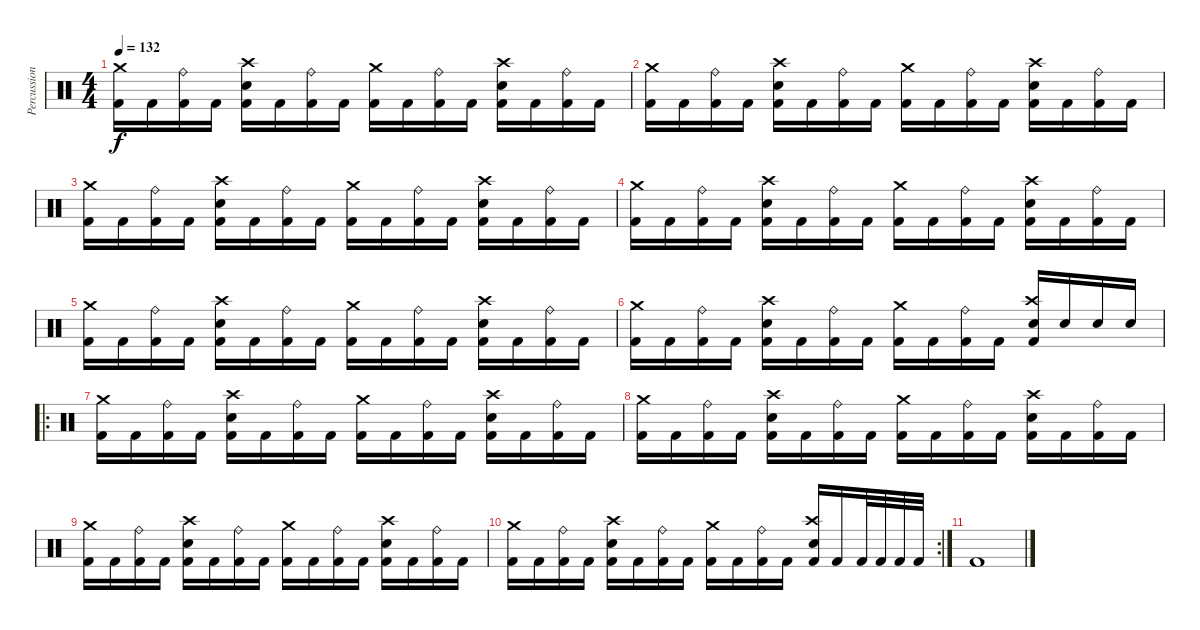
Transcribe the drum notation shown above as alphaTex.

\track ("Percussion" "Percussion") {instrument percussion}
\staff {score}
\articulation defaults
\ts (4 4)
\tempo 132
\clef neutral
\ks c
("Crash medium (hit)" "Kick (hit) 2").16{dy f} "Kick (hit) 2".16 ("Ride (bell)" "Kick (hit) 2").16 "Kick (hit) 2".16 ("Crash high (hit)" "Snare (hit) 2" "Kick (hit) 2").16 "Kick (hit) 2".16 ("Ride (bell)" "Kick (hit) 2").16 "Kick (hit) 2".16 ("Crash medium (hit)" "Kick (hit) 2").16 "Kick (hit) 2".16 ("Ride (bell)" "Kick (hit) 2").16 "Kick (hit) 2".16 ("Crash high (hit)" "Snare (hit) 2" "Kick (hit) 2").16 "Kick (hit) 2".16 ("Ride (bell)" "Kick (hit) 2").16 "Kick (hit) 2".16 |
("Crash medium (hit)" "Kick (hit) 2").16 "Kick (hit) 2".16 ("Ride (bell)" "Kick (hit) 2").16 "Kick (hit) 2".16 ("Crash high (hit)" "Snare (hit) 2" "Kick (hit) 2").16 "Kick (hit) 2".16 ("Ride (bell)" "Kick (hit) 2").16 "Kick (hit) 2".16 ("Crash medium (hit)" "Kick (hit) 2").16 "Kick (hit) 2".16 ("Ride (bell)" "Kick (hit) 2").16 "Kick (hit) 2".16 ("Crash high (hit)" "Snare (hit) 2" "Kick (hit) 2").16 "Kick (hit) 2".16 ("Ride (bell)" "Kick (hit) 2").16 "Kick (hit) 2".16 |
("Crash medium (hit)" "Kick (hit) 2").16 "Kick (hit) 2".16 ("Ride (bell)" "Kick (hit) 2").16 "Kick (hit) 2".16 ("Crash high (hit)" "Snare (hit) 2" "Kick (hit) 2").16 "Kick (hit) 2".16 ("Ride (bell)" "Kick (hit) 2").16 "Kick (hit) 2".16 ("Crash medium (hit)" "Kick (hit) 2").16 "Kick (hit) 2".16 ("Ride (bell)" "Kick (hit) 2").16 "Kick (hit) 2".16 ("Crash high (hit)" "Snare (hit) 2" "Kick (hit) 2").16 "Kick (hit) 2".16 ("Ride (bell)" "Kick (hit) 2").16 "Kick (hit) 2".16 |
("Crash medium (hit)" "Kick (hit) 2").16 "Kick (hit) 2".16 ("Ride (bell)" "Kick (hit) 2").16 "Kick (hit) 2".16 ("Crash high (hit)" "Snare (hit) 2" "Kick (hit) 2").16 "Kick (hit) 2".16 ("Ride (bell)" "Kick (hit) 2").16 "Kick (hit) 2".16 ("Crash medium (hit)" "Kick (hit) 2").16 "Kick (hit) 2".16 ("Ride (bell)" "Kick (hit) 2").16 "Kick (hit) 2".16 ("Crash high (hit)" "Snare (hit) 2" "Kick (hit) 2").16 "Kick (hit) 2".16 ("Ride (bell)" "Kick (hit) 2").16 "Kick (hit) 2".16 |
("Crash medium (hit)" "Kick (hit) 2").16 "Kick (hit) 2".16 ("Ride (bell)" "Kick (hit) 2").16 "Kick (hit) 2".16 ("Crash high (hit)" "Snare (hit) 2" "Kick (hit) 2").16 "Kick (hit) 2".16 ("Ride (bell)" "Kick (hit) 2").16 "Kick (hit) 2".16 ("Crash medium (hit)" "Kick (hit) 2").16 "Kick (hit) 2".16 ("Ride (bell)" "Kick (hit) 2").16 "Kick (hit) 2".16 ("Crash high (hit)" "Snare (hit) 2" "Kick (hit) 2").16 "Kick (hit) 2".16 ("Ride (bell)" "Kick (hit) 2").16 "Kick (hit) 2".16 |
("Crash medium (hit)" "Kick (hit) 2").16 "Kick (hit) 2".16 ("Ride (bell)" "Kick (hit) 2").16 "Kick (hit) 2".16 ("Crash high (hit)" "Snare (hit) 2" "Kick (hit) 2").16 "Kick (hit) 2".16 ("Ride (bell)" "Kick (hit) 2").16 "Kick (hit) 2".16 ("Crash medium (hit)" "Kick (hit) 2").16 "Kick (hit) 2".16 ("Ride (bell)" "Kick (hit) 2").16 "Kick (hit) 2".16 ("Crash high (hit)" "Snare (hit) 2" "Kick (hit) 2").16 "Snare (hit) 2".16 "Snare (hit) 2".16 "Snare (hit) 2".16 |
\ro
("Crash medium (hit)" "Kick (hit) 2").16{volume 14} "Kick (hit) 2".16 ("Ride (bell)" "Kick (hit) 2").16 "Kick (hit) 2".16 ("Crash high (hit)" "Snare (hit) 2" "Kick (hit) 2").16 "Kick (hit) 2".16 ("Ride (bell)" "Kick (hit) 2").16 "Kick (hit) 2".16 ("Crash medium (hit)" "Kick (hit) 2").16 "Kick (hit) 2".16 ("Ride (bell)" "Kick (hit) 2").16 "Kick (hit) 2".16 ("Crash high (hit)" "Snare (hit) 2" "Kick (hit) 2").16 "Kick (hit) 2".16 ("Ride (bell)" "Kick (hit) 2").16 "Kick (hit) 2".16 |
("Crash medium (hit)" "Kick (hit) 2").16 "Kick (hit) 2".16 ("Ride (bell)" "Kick (hit) 2").16 "Kick (hit) 2".16 ("Crash high (hit)" "Snare (hit) 2" "Kick (hit) 2").16 "Kick (hit) 2".16 ("Ride (bell)" "Kick (hit) 2").16 "Kick (hit) 2".16 ("Crash medium (hit)" "Kick (hit) 2").16 "Kick (hit) 2".16 ("Ride (bell)" "Kick (hit) 2").16 "Kick (hit) 2".16 ("Crash high (hit)" "Snare (hit) 2" "Kick (hit) 2").16 "Kick (hit) 2".16 ("Ride (bell)" "Kick (hit) 2").16 "Kick (hit) 2".16 |
("Crash medium (hit)" "Kick (hit) 2").16 "Kick (hit) 2".16 ("Ride (bell)" "Kick (hit) 2").16 "Kick (hit) 2".16 ("Crash high (hit)" "Snare (hit) 2" "Kick (hit) 2").16 "Kick (hit) 2".16 ("Ride (bell)" "Kick (hit) 2").16 "Kick (hit) 2".16 ("Crash medium (hit)" "Kick (hit) 2").16 "Kick (hit) 2".16 ("Ride (bell)" "Kick (hit) 2").16 "Kick (hit) 2".16 ("Crash high (hit)" "Snare (hit) 2" "Kick (hit) 2").16 "Kick (hit) 2".16 ("Ride (bell)" "Kick (hit) 2").16 "Kick (hit) 2".16 |
\rc 2
("Crash medium (hit)" "Kick (hit) 2").16 "Kick (hit) 2".16 ("Ride (bell)" "Kick (hit) 2").16 "Kick (hit) 2".16 ("Crash high (hit)" "Snare (hit) 2" "Kick (hit) 2").16 "Kick (hit) 2".16 ("Ride (bell)" "Kick (hit) 2").16 "Kick (hit) 2".16 ("Crash medium (hit)" "Kick (hit) 2").16 "Kick (hit) 2".16 ("Ride (bell)" "Kick (hit) 2").16 "Kick (hit) 2".16 ("Crash high (hit)" "Snare (hit) 2" "Kick (hit) 2").16 "Kick (hit) 2".16 "Kick (hit) 2".32 "Kick (hit) 2".32 "Kick (hit) 2".32 "Kick (hit) 2".32 |
"Kick (hit) 2".1
